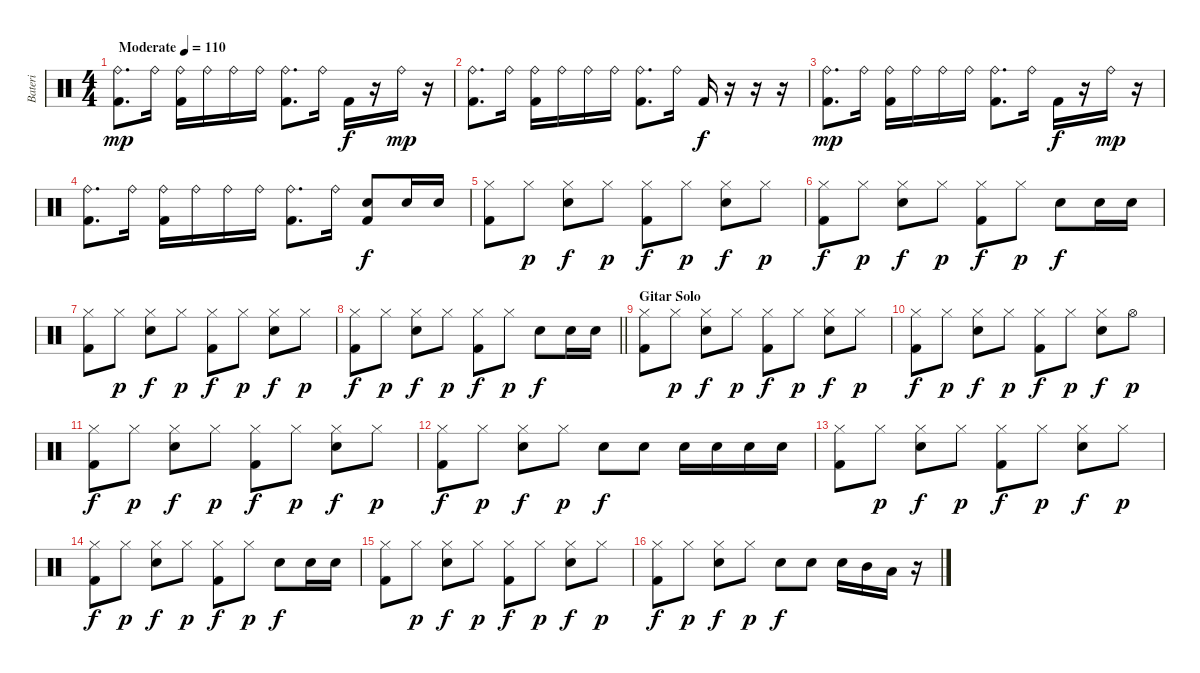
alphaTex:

\track ("Bateri" "Bateri") {instrument percussion}
\staff {score}
\articulation defaults
\ts (4 4)
\tempo (110 "Moderate")
\clef neutral
\ks c
("Ride (bell)" "Kick (hit) 2").8{d dy mp} "Ride (bell)".16 ("Ride (bell)" "Kick (hit) 2").16 "Ride (bell)".16 "Ride (bell)".16 "Ride (bell)".16 ("Ride (bell)" "Kick (hit) 2").8{d} "Ride (bell)".16 "Kick (hit) 2".16{dy f} r.16 "Ride (bell)".16{dy mp} r.16 |
("Ride (bell)" "Kick (hit) 2").8{d} "Ride (bell)".16 ("Ride (bell)" "Kick (hit) 2").16 "Ride (bell)".16 "Ride (bell)".16 "Ride (bell)".16 ("Ride (bell)" "Kick (hit) 2").8{d} "Ride (bell)".16 "Kick (hit) 2".16{dy f} r.16 r.16 r.16 |
("Ride (bell)" "Kick (hit) 2").8{d dy mp} "Ride (bell)".16 ("Ride (bell)" "Kick (hit) 2").16 "Ride (bell)".16 "Ride (bell)".16 "Ride (bell)".16 ("Ride (bell)" "Kick (hit) 2").8{d} "Ride (bell)".16 "Kick (hit) 2".16{dy f} r.16 "Ride (bell)".16{dy mp} r.16 |
("Ride (bell)" "Kick (hit) 2").8{d} "Ride (bell)".16 ("Ride (bell)" "Kick (hit) 2").16 "Ride (bell)".16 "Ride (bell)".16 "Ride (bell)".16 ("Ride (bell)" "Kick (hit) 2").8{d} "Ride (bell)".16 ("Snare (hit) 2" "Kick (hit) 2").8{dy f} "Snare (hit) 2".16 "Snare (hit) 2".16 |
("Hi-Hat (closed)" "Kick (hit) 2").8 "Hi-Hat (closed)".8{dy p} ("Hi-Hat (closed)" "Snare (hit) 2").8{dy f} "Hi-Hat (closed)".8{dy p} ("Hi-Hat (closed)" "Kick (hit) 2").8{dy f} "Hi-Hat (closed)".8{dy p} ("Hi-Hat (closed)" "Snare (hit) 2").8{dy f} "Hi-Hat (closed)".8{dy p} |
("Hi-Hat (closed)" "Kick (hit) 2").8{dy f} "Hi-Hat (closed)".8{dy p} ("Hi-Hat (closed)" "Snare (hit) 2").8{dy f} "Hi-Hat (closed)".8{dy p} ("Hi-Hat (closed)" "Kick (hit) 2").8{dy f} "Hi-Hat (closed)".8{dy p} "Snare (hit) 2".8{dy f} "Snare (hit) 2".16 "Snare (hit) 2".16 |
("Hi-Hat (closed)" "Kick (hit) 2").8 "Hi-Hat (closed)".8{dy p} ("Hi-Hat (closed)" "Snare (hit) 2").8{dy f} "Hi-Hat (closed)".8{dy p} ("Hi-Hat (closed)" "Kick (hit) 2").8{dy f} "Hi-Hat (closed)".8{dy p} ("Hi-Hat (closed)" "Snare (hit) 2").8{dy f} "Hi-Hat (closed)".8{dy p} |
\barLineRight lightlight
("Hi-Hat (closed)" "Kick (hit) 2").8{dy f} "Hi-Hat (closed)".8{dy p} ("Hi-Hat (closed)" "Snare (hit) 2").8{dy f} "Hi-Hat (closed)".8{dy p} ("Hi-Hat (closed)" "Kick (hit) 2").8{dy f} "Hi-Hat (closed)".8{dy p} "Snare (hit) 2".8{dy f} "Snare (hit) 2".16 "Snare (hit) 2".16 |
\section ("" "Gitar Solo")
("Hi-Hat (closed)" "Kick (hit) 2").8 "Hi-Hat (closed)".8{dy p} ("Hi-Hat (closed)" "Snare (hit) 2").8{dy f} "Hi-Hat (closed)".8{dy p} ("Hi-Hat (closed)" "Kick (hit) 2").8{dy f} "Hi-Hat (closed)".8{dy p} ("Hi-Hat (closed)" "Snare (hit) 2").8{dy f} "Hi-Hat (closed)".8{dy p} |
("Hi-Hat (closed)" "Kick (hit) 2").8{dy f} "Hi-Hat (closed)".8{dy p} ("Hi-Hat (closed)" "Snare (hit) 2").8{dy f} "Hi-Hat (closed)".8{dy p} ("Hi-Hat (closed)" "Kick (hit) 2").8{dy f} "Hi-Hat (closed)".8{dy p} ("Hi-Hat (closed)" "Snare (hit) 2").8{dy f} "Hi-Hat (open)".8{dy p} |
("Hi-Hat (closed)" "Kick (hit) 2").8{dy f} "Hi-Hat (closed)".8{dy p} ("Hi-Hat (closed)" "Snare (hit) 2").8{dy f} "Hi-Hat (closed)".8{dy p} ("Hi-Hat (closed)" "Kick (hit) 2").8{dy f} "Hi-Hat (closed)".8{dy p} ("Hi-Hat (closed)" "Snare (hit) 2").8{dy f} "Hi-Hat (closed)".8{dy p} |
("Hi-Hat (closed)" "Kick (hit) 2").8{dy f} "Hi-Hat (closed)".8{dy p} ("Hi-Hat (closed)" "Snare (hit) 2").8{dy f} "Hi-Hat (closed)".8{dy p} "Snare (hit) 2".8{dy f} "Snare (hit) 2".8 "Snare (hit) 2".16 "Snare (hit) 2".16 "Snare (hit) 2".16 "Snare (hit) 2".16 |
("Hi-Hat (closed)" "Kick (hit) 2").8 "Hi-Hat (closed)".8{dy p} ("Hi-Hat (closed)" "Snare (hit) 2").8{dy f} "Hi-Hat (closed)".8{dy p} ("Hi-Hat (closed)" "Kick (hit) 2").8{dy f} "Hi-Hat (closed)".8{dy p} ("Hi-Hat (closed)" "Snare (hit) 2").8{dy f} "Hi-Hat (closed)".8{dy p} |
("Hi-Hat (closed)" "Kick (hit) 2").8{dy f} "Hi-Hat (closed)".8{dy p} ("Hi-Hat (closed)" "Snare (hit) 2").8{dy f} "Hi-Hat (closed)".8{dy p} ("Hi-Hat (closed)" "Kick (hit) 2").8{dy f} "Hi-Hat (closed)".8{dy p} "Snare (hit) 2".8{dy f} "Snare (hit) 2".16 "Snare (hit) 2".16 |
("Hi-Hat (closed)" "Kick (hit) 2").8 "Hi-Hat (closed)".8{dy p} ("Hi-Hat (closed)" "Snare (hit) 2").8{dy f} "Hi-Hat (closed)".8{dy p} ("Hi-Hat (closed)" "Kick (hit) 2").8{dy f} "Hi-Hat (closed)".8{dy p} ("Hi-Hat (closed)" "Snare (hit) 2").8{dy f} "Hi-Hat (closed)".8{dy p} |
("Hi-Hat (closed)" "Kick (hit) 2").8{dy f} "Hi-Hat (closed)".8{dy p} ("Hi-Hat (closed)" "Snare (hit) 2").8{dy f} "Hi-Hat (closed)".8{dy p} "Snare (hit) 2".8{dy f} "Snare (hit) 2".8 "Snare (hit) 2".16 "Mid Tom (hit)".16 "Low Tom (hit)".16 r.16
